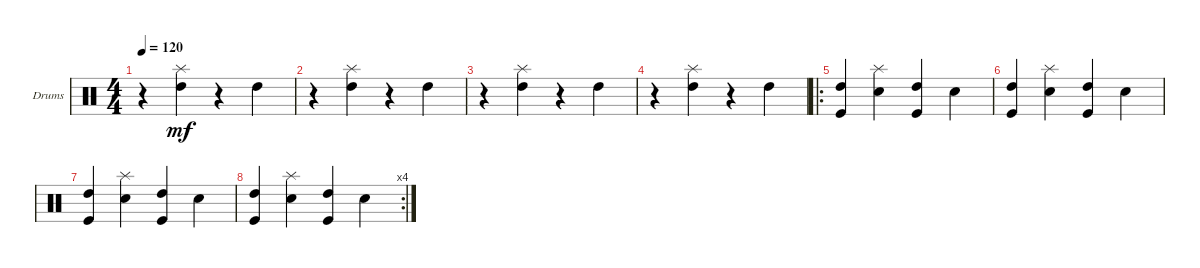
\defaultSystemsLayout 4
\bracketExtendMode groupsimilarinstruments
\firstSystemTrackNameOrientation horizontal
\otherSystemsTrackNameOrientation horizontal
\track ("Drumkit" "Drums") {instrument percussion}
\staff {score}
\articulation defaults
\ts (4 4)
\tempo 120
\clef neutral
\scale
0.474178
\ks c
r.4{dy mf} ("Splash (hit)" "High Tom (hit)").4 r.4 "High Tom (hit)".4 |
\scale
0.262911 r.4 ("Splash (hit)" "High Tom (hit)").4 r.4 "High Tom (hit)".4 |
\scale
0.262911 r.4 ("Splash (hit)" "High Tom (hit)").4 r.4 "High Tom (hit)".4 |
r.4 ("Splash (hit)" "High Tom (hit)").4 r.4 "High Tom (hit)".4 |
\ro
("Kick (hit)" "High Tom (hit)").4 ("Snare (hit) 2" "Splash (hit)").4 ("Kick (hit)" "High Tom (hit)").4 "Snare (hit) 2".4 |
("Kick (hit)" "High Tom (hit)").4 ("Snare (hit) 2" "Splash (hit)").4 ("Kick (hit)" "High Tom (hit)").4 "Snare (hit) 2".4 |
("Kick (hit)" "High Tom (hit)").4 ("Snare (hit) 2" "Splash (hit)").4 ("Kick (hit)" "High Tom (hit)").4 "Snare (hit) 2".4 |
\rc 4
("Kick (hit)" "High Tom (hit)").4 ("Snare (hit) 2" "Splash (hit)").4 ("Kick (hit)" "High Tom (hit)").4 "Snare (hit) 2".4
